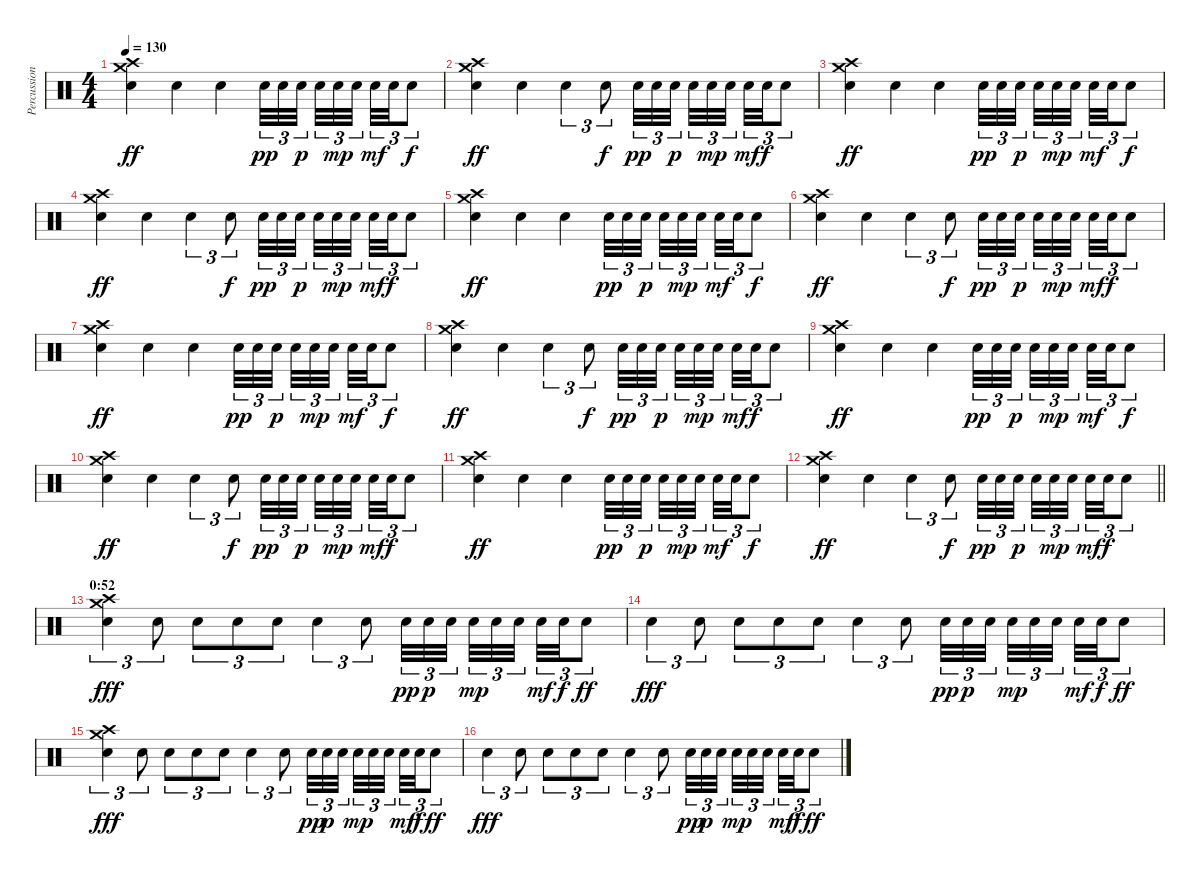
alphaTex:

\track ("Percussion" "Percussion") {instrument percussion}
\staff {score}
\articulation defaults
\ts (4 4)
\tempo 130
\clef neutral
\ks c
("Crash medium (hit)" "Crash high (hit)" "Electric Snare (hit)").4{dy ff} "Electric Snare (hit)".4 "Electric Snare (hit)".4 "Electric Snare (hit)".32{tu (3 2) dy pp} "Electric Snare (hit)".32{tu (3 2)} "Electric Snare (hit)".32{tu (3 2) dy p beam splitsecondary} "Electric Snare (hit)".32{tu (3 2)} "Electric Snare (hit)".32{tu (3 2) dy mp} "Electric Snare (hit)".32{tu (3 2) beam splitsecondary} "Electric Snare (hit)".32{tu (3 2) dy mf} "Electric Snare (hit)".32{tu (3 2)} "Electric Snare (hit)".8{tu (3 2) dy f} |
("Crash medium (hit)" "Crash high (hit)" "Electric Snare (hit)").4{dy ff} "Electric Snare (hit)".4 "Electric Snare (hit)".4{tu (3 2)} "Electric Snare (hit)".8{tu (3 2) dy f} "Electric Snare (hit)".32{tu (3 2) dy pp} "Electric Snare (hit)".32{tu (3 2)} "Electric Snare (hit)".32{tu (3 2) dy p beam splitsecondary} "Electric Snare (hit)".32{tu (3 2)} "Electric Snare (hit)".32{tu (3 2) dy mp} "Electric Snare (hit)".32{tu (3 2) beam splitsecondary} "Electric Snare (hit)".32{tu (3 2) dy mf} "Electric Snare (hit)".32{tu (3 2) dy f} "Electric Snare (hit)".8{tu (3 2)} |
("Crash medium (hit)" "Crash high (hit)" "Electric Snare (hit)").4{dy ff} "Electric Snare (hit)".4 "Electric Snare (hit)".4 "Electric Snare (hit)".32{tu (3 2) dy pp} "Electric Snare (hit)".32{tu (3 2)} "Electric Snare (hit)".32{tu (3 2) dy p beam splitsecondary} "Electric Snare (hit)".32{tu (3 2)} "Electric Snare (hit)".32{tu (3 2) dy mp} "Electric Snare (hit)".32{tu (3 2) beam splitsecondary} "Electric Snare (hit)".32{tu (3 2) dy mf} "Electric Snare (hit)".32{tu (3 2)} "Electric Snare (hit)".8{tu (3 2) dy f} |
("Crash medium (hit)" "Crash high (hit)" "Electric Snare (hit)").4{dy ff} "Electric Snare (hit)".4 "Electric Snare (hit)".4{tu (3 2)} "Electric Snare (hit)".8{tu (3 2) dy f} "Electric Snare (hit)".32{tu (3 2) dy pp} "Electric Snare (hit)".32{tu (3 2)} "Electric Snare (hit)".32{tu (3 2) dy p beam splitsecondary} "Electric Snare (hit)".32{tu (3 2)} "Electric Snare (hit)".32{tu (3 2) dy mp} "Electric Snare (hit)".32{tu (3 2) beam splitsecondary} "Electric Snare (hit)".32{tu (3 2) dy mf} "Electric Snare (hit)".32{tu (3 2) dy f} "Electric Snare (hit)".8{tu (3 2)} |
("Crash medium (hit)" "Crash high (hit)" "Electric Snare (hit)").4{dy ff} "Electric Snare (hit)".4 "Electric Snare (hit)".4 "Electric Snare (hit)".32{tu (3 2) dy pp} "Electric Snare (hit)".32{tu (3 2)} "Electric Snare (hit)".32{tu (3 2) dy p beam splitsecondary} "Electric Snare (hit)".32{tu (3 2)} "Electric Snare (hit)".32{tu (3 2) dy mp} "Electric Snare (hit)".32{tu (3 2) beam splitsecondary} "Electric Snare (hit)".32{tu (3 2) dy mf} "Electric Snare (hit)".32{tu (3 2)} "Electric Snare (hit)".8{tu (3 2) dy f} |
("Crash medium (hit)" "Crash high (hit)" "Electric Snare (hit)").4{dy ff} "Electric Snare (hit)".4 "Electric Snare (hit)".4{tu (3 2)} "Electric Snare (hit)".8{tu (3 2) dy f} "Electric Snare (hit)".32{tu (3 2) dy pp} "Electric Snare (hit)".32{tu (3 2)} "Electric Snare (hit)".32{tu (3 2) dy p beam splitsecondary} "Electric Snare (hit)".32{tu (3 2)} "Electric Snare (hit)".32{tu (3 2) dy mp} "Electric Snare (hit)".32{tu (3 2) beam splitsecondary} "Electric Snare (hit)".32{tu (3 2) dy mf} "Electric Snare (hit)".32{tu (3 2) dy f} "Electric Snare (hit)".8{tu (3 2)} |
("Crash medium (hit)" "Crash high (hit)" "Electric Snare (hit)").4{dy ff} "Electric Snare (hit)".4 "Electric Snare (hit)".4 "Electric Snare (hit)".32{tu (3 2) dy pp} "Electric Snare (hit)".32{tu (3 2)} "Electric Snare (hit)".32{tu (3 2) dy p beam splitsecondary} "Electric Snare (hit)".32{tu (3 2)} "Electric Snare (hit)".32{tu (3 2) dy mp} "Electric Snare (hit)".32{tu (3 2) beam splitsecondary} "Electric Snare (hit)".32{tu (3 2) dy mf} "Electric Snare (hit)".32{tu (3 2)} "Electric Snare (hit)".8{tu (3 2) dy f} |
("Crash medium (hit)" "Crash high (hit)" "Electric Snare (hit)").4{dy ff} "Electric Snare (hit)".4 "Electric Snare (hit)".4{tu (3 2)} "Electric Snare (hit)".8{tu (3 2) dy f} "Electric Snare (hit)".32{tu (3 2) dy pp} "Electric Snare (hit)".32{tu (3 2)} "Electric Snare (hit)".32{tu (3 2) dy p beam splitsecondary} "Electric Snare (hit)".32{tu (3 2)} "Electric Snare (hit)".32{tu (3 2) dy mp} "Electric Snare (hit)".32{tu (3 2) beam splitsecondary} "Electric Snare (hit)".32{tu (3 2) dy mf} "Electric Snare (hit)".32{tu (3 2) dy f} "Electric Snare (hit)".8{tu (3 2)} |
("Crash medium (hit)" "Crash high (hit)" "Electric Snare (hit)").4{dy ff} "Electric Snare (hit)".4 "Electric Snare (hit)".4 "Electric Snare (hit)".32{tu (3 2) dy pp} "Electric Snare (hit)".32{tu (3 2)} "Electric Snare (hit)".32{tu (3 2) dy p beam splitsecondary} "Electric Snare (hit)".32{tu (3 2)} "Electric Snare (hit)".32{tu (3 2) dy mp} "Electric Snare (hit)".32{tu (3 2) beam splitsecondary} "Electric Snare (hit)".32{tu (3 2) dy mf} "Electric Snare (hit)".32{tu (3 2)} "Electric Snare (hit)".8{tu (3 2) dy f} |
("Crash medium (hit)" "Crash high (hit)" "Electric Snare (hit)").4{dy ff} "Electric Snare (hit)".4 "Electric Snare (hit)".4{tu (3 2)} "Electric Snare (hit)".8{tu (3 2) dy f} "Electric Snare (hit)".32{tu (3 2) dy pp} "Electric Snare (hit)".32{tu (3 2)} "Electric Snare (hit)".32{tu (3 2) dy p beam splitsecondary} "Electric Snare (hit)".32{tu (3 2)} "Electric Snare (hit)".32{tu (3 2) dy mp} "Electric Snare (hit)".32{tu (3 2) beam splitsecondary} "Electric Snare (hit)".32{tu (3 2) dy mf} "Electric Snare (hit)".32{tu (3 2) dy f} "Electric Snare (hit)".8{tu (3 2)} |
("Crash medium (hit)" "Crash high (hit)" "Electric Snare (hit)").4{dy ff} "Electric Snare (hit)".4 "Electric Snare (hit)".4 "Electric Snare (hit)".32{tu (3 2) dy pp} "Electric Snare (hit)".32{tu (3 2)} "Electric Snare (hit)".32{tu (3 2) dy p beam splitsecondary} "Electric Snare (hit)".32{tu (3 2)} "Electric Snare (hit)".32{tu (3 2) dy mp} "Electric Snare (hit)".32{tu (3 2) beam splitsecondary} "Electric Snare (hit)".32{tu (3 2) dy mf} "Electric Snare (hit)".32{tu (3 2)} "Electric Snare (hit)".8{tu (3 2) dy f} |
\barLineRight lightlight
("Crash medium (hit)" "Crash high (hit)" "Electric Snare (hit)").4{dy ff} "Electric Snare (hit)".4 "Electric Snare (hit)".4{tu (3 2)} "Electric Snare (hit)".8{tu (3 2) dy f} "Electric Snare (hit)".32{tu (3 2) dy pp} "Electric Snare (hit)".32{tu (3 2)} "Electric Snare (hit)".32{tu (3 2) dy p beam splitsecondary} "Electric Snare (hit)".32{tu (3 2)} "Electric Snare (hit)".32{tu (3 2) dy mp} "Electric Snare (hit)".32{tu (3 2) beam splitsecondary} "Electric Snare (hit)".32{tu (3 2) dy mf} "Electric Snare (hit)".32{tu (3 2) dy f} "Electric Snare (hit)".8{tu (3 2)} |
\section ("" "0:52")
("Crash medium (hit)" "Crash high (hit)" "Electric Snare (hit)").4{tu (3 2) dy fff} "Electric Snare (hit)".8{tu (3 2)} "Electric Snare (hit)".8{tu (3 2)} "Electric Snare (hit)".8{tu (3 2)} "Electric Snare (hit)".8{tu (3 2)} "Electric Snare (hit)".4{tu (3 2)} "Electric Snare (hit)".8{tu (3 2)} "Electric Snare (hit)".32{tu (3 2) dy pp} "Electric Snare (hit)".32{tu (3 2) dy p} "Electric Snare (hit)".32{tu (3 2) beam splitsecondary} "Electric Snare (hit)".32{tu (3 2) dy mp} "Electric Snare (hit)".32{tu (3 2)} "Electric Snare (hit)".32{tu (3 2) beam splitsecondary} "Electric Snare (hit)".32{tu (3 2) dy mf} "Electric Snare (hit)".32{tu (3 2) dy f} "Electric Snare (hit)".8{tu (3 2) dy ff} |
"Electric Snare (hit)".4{tu (3 2) dy fff} "Electric Snare (hit)".8{tu (3 2)} "Electric Snare (hit)".8{tu (3 2)} "Electric Snare (hit)".8{tu (3 2)} "Electric Snare (hit)".8{tu (3 2)} "Electric Snare (hit)".4{tu (3 2)} "Electric Snare (hit)".8{tu (3 2)} "Electric Snare (hit)".32{tu (3 2) dy pp} "Electric Snare (hit)".32{tu (3 2) dy p} "Electric Snare (hit)".32{tu (3 2) beam splitsecondary} "Electric Snare (hit)".32{tu (3 2) dy mp} "Electric Snare (hit)".32{tu (3 2)} "Electric Snare (hit)".32{tu (3 2) beam splitsecondary} "Electric Snare (hit)".32{tu (3 2) dy mf} "Electric Snare (hit)".32{tu (3 2) dy f} "Electric Snare (hit)".8{tu (3 2) dy ff} |
("Crash medium (hit)" "Crash high (hit)" "Electric Snare (hit)").4{tu (3 2) dy fff} "Electric Snare (hit)".8{tu (3 2)} "Electric Snare (hit)".8{tu (3 2)} "Electric Snare (hit)".8{tu (3 2)} "Electric Snare (hit)".8{tu (3 2)} "Electric Snare (hit)".4{tu (3 2)} "Electric Snare (hit)".8{tu (3 2)} "Electric Snare (hit)".32{tu (3 2) dy pp} "Electric Snare (hit)".32{tu (3 2) dy p} "Electric Snare (hit)".32{tu (3 2) beam splitsecondary} "Electric Snare (hit)".32{tu (3 2) dy mp} "Electric Snare (hit)".32{tu (3 2)} "Electric Snare (hit)".32{tu (3 2) beam splitsecondary} "Electric Snare (hit)".32{tu (3 2) dy mf} "Electric Snare (hit)".32{tu (3 2) dy f} "Electric Snare (hit)".8{tu (3 2) dy ff} |
"Electric Snare (hit)".4{tu (3 2) dy fff} "Electric Snare (hit)".8{tu (3 2)} "Electric Snare (hit)".8{tu (3 2)} "Electric Snare (hit)".8{tu (3 2)} "Electric Snare (hit)".8{tu (3 2)} "Electric Snare (hit)".4{tu (3 2)} "Electric Snare (hit)".8{tu (3 2)} "Electric Snare (hit)".32{tu (3 2) dy pp} "Electric Snare (hit)".32{tu (3 2) dy p} "Electric Snare (hit)".32{tu (3 2) beam splitsecondary} "Electric Snare (hit)".32{tu (3 2) dy mp} "Electric Snare (hit)".32{tu (3 2)} "Electric Snare (hit)".32{tu (3 2) beam splitsecondary} "Electric Snare (hit)".32{tu (3 2) dy mf} "Electric Snare (hit)".32{tu (3 2) dy f} "Electric Snare (hit)".8{tu (3 2) dy ff}
